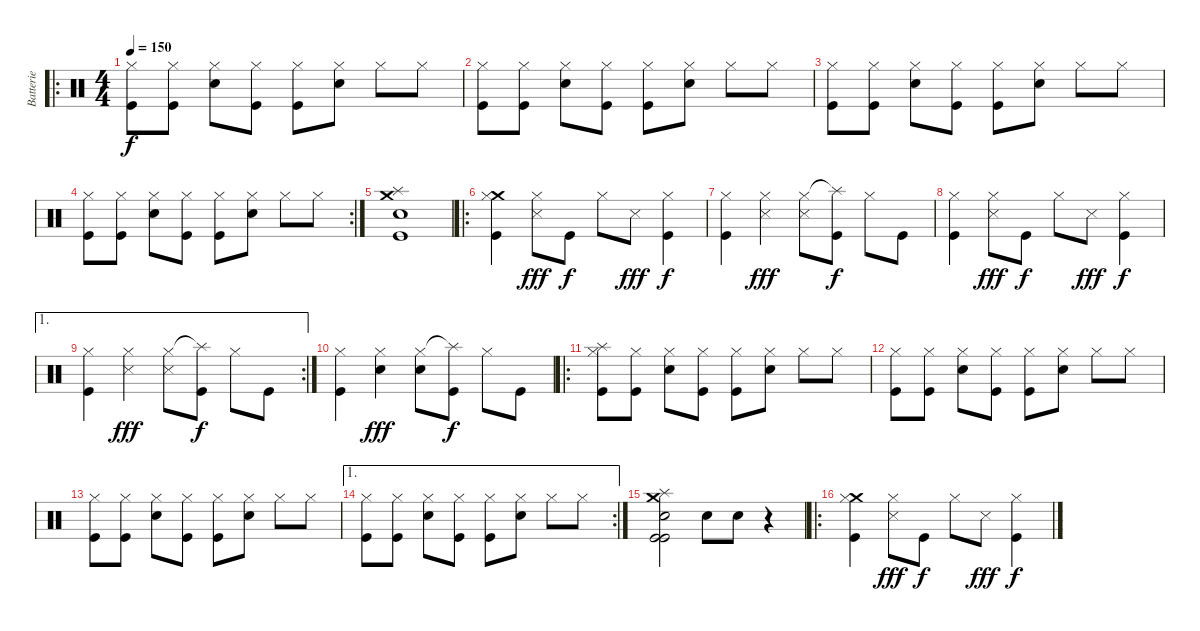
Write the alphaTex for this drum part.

\track ("Batterie" "Batterie") {instrument percussion}
\staff {score}
\articulation defaults
\ro
\ts (4 4)
\tempo 150
\clef neutral
\ks c
("Hi-Hat (closed)" "Kick (hit)").8{dy f} ("Hi-Hat (closed)" "Kick (hit)").8 ("Hi-Hat (closed)" "Electric Snare (hit)").8 ("Hi-Hat (closed)" "Kick (hit)").8 ("Hi-Hat (closed)" "Kick (hit)").8 ("Hi-Hat (closed)" "Electric Snare (hit)").8 "Hi-Hat (closed)".8 "Hi-Hat (closed)".8 |
("Hi-Hat (closed)" "Kick (hit)").8 ("Hi-Hat (closed)" "Kick (hit)").8 ("Hi-Hat (closed)" "Electric Snare (hit)").8 ("Hi-Hat (closed)" "Kick (hit)").8 ("Hi-Hat (closed)" "Kick (hit)").8 ("Hi-Hat (closed)" "Electric Snare (hit)").8 "Hi-Hat (closed)".8 "Hi-Hat (closed)".8 |
("Hi-Hat (closed)" "Kick (hit)").8 ("Hi-Hat (closed)" "Kick (hit)").8 ("Hi-Hat (closed)" "Electric Snare (hit)").8 ("Hi-Hat (closed)" "Kick (hit)").8 ("Hi-Hat (closed)" "Kick (hit)").8 ("Hi-Hat (closed)" "Electric Snare (hit)").8 "Hi-Hat (closed)".8 "Hi-Hat (closed)".8 |
\rc 2
("Hi-Hat (closed)" "Kick (hit)").8 ("Hi-Hat (closed)" "Kick (hit)").8 ("Hi-Hat (closed)" "Electric Snare (hit)").8 ("Hi-Hat (closed)" "Kick (hit)").8 ("Hi-Hat (closed)" "Kick (hit)").8 ("Hi-Hat (closed)" "Electric Snare (hit)").8 "Hi-Hat (closed)".8 "Hi-Hat (closed)".8 |
("Crash medium (hit)" "Splash (hit)" "Electric Snare (hit)" "Kick (hit)").1 |
\ro
("Crash medium (hit)" "Hi-Hat (closed)" "Kick (hit)").4 ("Hi-Hat (closed)" "Snare (side stick) 3").8{dy fff} "Kick (hit)".8{dy f} "Hi-Hat (closed)".8 "Snare (side stick) 3".8{dy fff} ("Hi-Hat (closed)" "Kick (hit)").4{dy f} |
("Hi-Hat (closed)" "Kick (hit)").4 ("Hi-Hat (closed)" "Snare (side stick) 3").4{dy fff} ("Hi-Hat (closed)" "Snare (side stick) 3").8 ("Splash (hit)"{t} "Kick (hit)").8{dy f} "Hi-Hat (closed)".8 "Kick (hit)".8 |
("Hi-Hat (closed)" "Kick (hit)").4 ("Hi-Hat (closed)" "Snare (side stick) 3").8{dy fff} "Kick (hit)".8{dy f} "Hi-Hat (closed)".8 "Snare (side stick) 3".8{dy fff} ("Hi-Hat (closed)" "Kick (hit)").4{dy f} |
\ae 1
\rc 2
("Hi-Hat (closed)" "Kick (hit)").4 ("Hi-Hat (closed)" "Snare (side stick) 3").4{dy fff} ("Hi-Hat (closed)" "Snare (side stick) 3").8 ("Splash (hit)"{t} "Kick (hit)").8{dy f} "Hi-Hat (closed)".8 "Kick (hit)".8 |
("Hi-Hat (closed)" "Kick (hit)").4 ("Hi-Hat (closed)" "Electric Snare (hit)").4{dy fff} ("Hi-Hat (closed)" "Electric Snare (hit)").8 ("Splash (hit)"{t} "Kick (hit)").8{dy f} "Hi-Hat (closed)".8 "Kick (hit)".8 |
\ro
("Splash (hit)" "Hi-Hat (closed)" "Kick (hit)").8 ("Hi-Hat (closed)" "Kick (hit)").8 ("Hi-Hat (closed)" "Electric Snare (hit)").8 ("Hi-Hat (closed)" "Kick (hit)").8 ("Hi-Hat (closed)" "Kick (hit)").8 ("Hi-Hat (closed)" "Electric Snare (hit)").8 "Hi-Hat (closed)".8 "Hi-Hat (closed)".8 |
("Hi-Hat (closed)" "Kick (hit)").8 ("Hi-Hat (closed)" "Kick (hit)").8 ("Hi-Hat (closed)" "Electric Snare (hit)").8 ("Hi-Hat (closed)" "Kick (hit)").8 ("Hi-Hat (closed)" "Kick (hit)").8 ("Hi-Hat (closed)" "Electric Snare (hit)").8 "Hi-Hat (closed)".8 "Hi-Hat (closed)".8 |
("Hi-Hat (closed)" "Kick (hit)").8 ("Hi-Hat (closed)" "Kick (hit)").8 ("Hi-Hat (closed)" "Electric Snare (hit)").8 ("Hi-Hat (closed)" "Kick (hit)").8 ("Hi-Hat (closed)" "Kick (hit)").8 ("Hi-Hat (closed)" "Electric Snare (hit)").8 "Hi-Hat (closed)".8 "Hi-Hat (closed)".8 |
\ae 1
\rc 2
("Hi-Hat (closed)" "Kick (hit)").8 ("Hi-Hat (closed)" "Kick (hit)").8 ("Hi-Hat (closed)" "Electric Snare (hit)").8 ("Hi-Hat (closed)" "Kick (hit)").8 ("Hi-Hat (closed)" "Kick (hit)").8 ("Hi-Hat (closed)" "Electric Snare (hit)").8 "Hi-Hat (closed)".8 "Hi-Hat (closed)".8 |
("Splash (hit)" "Crash medium (hit)" "Electric Snare (hit)" "Kick (hit)" "Kick (hit)").2 "Electric Snare (hit)".8 "Electric Snare (hit)".8 r.4 |
\ro
("Crash medium (hit)" "Hi-Hat (closed)" "Kick (hit)").4 ("Hi-Hat (closed)" "Snare (side stick) 3").8{dy fff} "Kick (hit)".8{dy f} "Hi-Hat (closed)".8 "Snare (side stick) 3".8{dy fff} ("Hi-Hat (closed)" "Kick (hit)").4{dy f}
